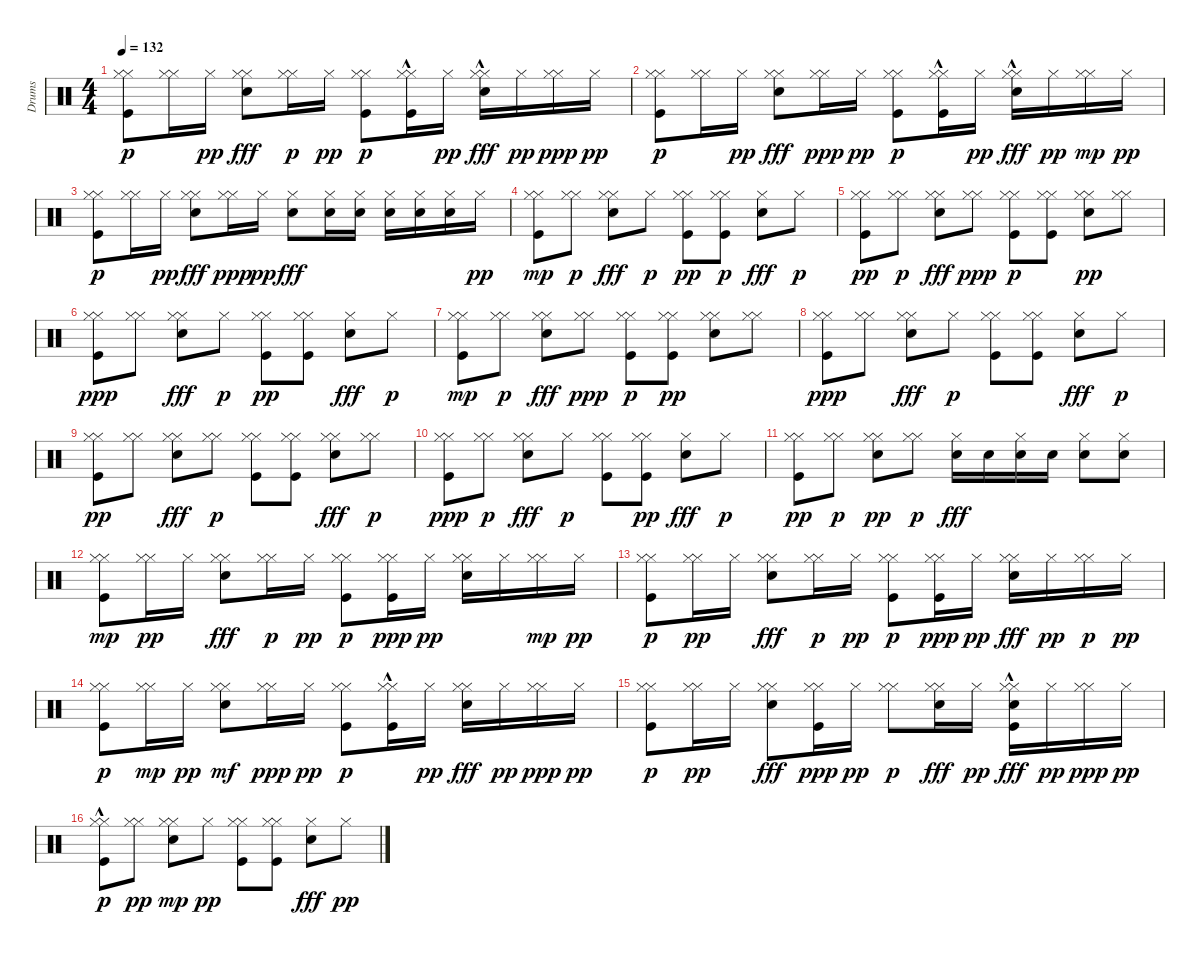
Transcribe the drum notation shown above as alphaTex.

\track ("Drums" "Drums") {instrument percussion}
\staff {score}
\articulation defaults
\ts (4 4)
\tempo 132
\clef neutral
\ks c
("Kick (hit)" "Hi-Hat (closed)" "Hi-Hat (closed)").8{dy p} ("Hi-Hat (closed)" "Hi-Hat (closed)").16 "Hi-Hat (closed)".16{dy pp} ("Hi-Hat (closed)" "Hi-Hat (closed)" "Snare (hit) 2").8{dy fff} ("Hi-Hat (closed)" "Hi-Hat (closed)").16{dy p} "Hi-Hat (closed)".16{dy pp} ("Hi-Hat (closed)" "Kick (hit)" "Hi-Hat (closed)").8{dy p} ("Kick (hit)"{hac} "Hi-Hat (closed)" "Hi-Hat (closed)").16 "Hi-Hat (closed)".16{dy pp} ("Hi-Hat (closed)" "Hi-Hat (closed)" "Snare (hit) 2"{hac}).16{dy fff} "Hi-Hat (closed)".16{dy pp} ("Hi-Hat (closed)" "Hi-Hat (closed)").16{dy ppp} "Hi-Hat (closed)".16{dy pp} |
("Kick (hit)" "Hi-Hat (closed)" "Hi-Hat (closed)").8{dy p} ("Hi-Hat (closed)" "Hi-Hat (closed)").16 "Hi-Hat (closed)".16{dy pp} ("Hi-Hat (closed)" "Hi-Hat (closed)" "Snare (hit) 2").8{dy fff} ("Hi-Hat (closed)" "Hi-Hat (closed)").16{dy ppp} "Hi-Hat (closed)".16{dy pp} ("Kick (hit)" "Hi-Hat (closed)" "Hi-Hat (closed)").8{dy p} ("Kick (hit)"{hac} "Hi-Hat (closed)" "Hi-Hat (closed)").16 "Hi-Hat (closed)".16{dy pp} ("Hi-Hat (closed)" "Hi-Hat (closed)" "Snare (hit) 2"{hac}).16{dy fff} "Hi-Hat (closed)".16{dy pp} ("Hi-Hat (closed)" "Hi-Hat (closed)").16{dy mp} "Hi-Hat (closed)".16{dy pp} |
("Kick (hit)" "Hi-Hat (closed)" "Hi-Hat (closed)").8{dy p} ("Hi-Hat (closed)" "Hi-Hat (closed)").16 "Hi-Hat (closed)".16{dy pp} ("Hi-Hat (closed)" "Hi-Hat (closed)" "Snare (hit) 2").8{dy fff} ("Hi-Hat (closed)" "Hi-Hat (closed)").16{dy ppp} "Hi-Hat (closed)".16{dy pp} ("Hi-Hat (closed)" "Snare (hit) 2").8{dy fff} ("Hi-Hat (closed)" "Snare (hit) 2").16 ("Hi-Hat (closed)" "Snare (hit) 2").16 ("Hi-Hat (closed)" "Snare (hit) 2").16 ("Hi-Hat (closed)" "Snare (hit) 2").16 ("Hi-Hat (closed)" "Snare (hit) 2").16 "Hi-Hat (closed)".16{dy pp} |
("Hi-Hat (closed)" "Kick (hit)" "Hi-Hat (closed)").8{dy mp} ("Hi-Hat (closed)" "Hi-Hat (closed)").8{dy p} ("Hi-Hat (closed)" "Hi-Hat (closed)" "Snare (hit) 2").8{dy fff} "Hi-Hat (closed)".8{dy p} ("Kick (hit)" "Hi-Hat (closed)" "Hi-Hat (closed)").8{dy pp} ("Kick (hit)" "Hi-Hat (closed)" "Hi-Hat (closed)").8{dy p} ("Hi-Hat (closed)" "Snare (hit) 2").8{dy fff} "Hi-Hat (closed)".8{dy p} |
("Kick (hit)" "Hi-Hat (closed)" "Hi-Hat (closed)").8{dy pp} ("Hi-Hat (closed)" "Hi-Hat (closed)").8{dy p} ("Hi-Hat (closed)" "Hi-Hat (closed)" "Snare (hit) 2").8{dy fff} ("Hi-Hat (closed)" "Hi-Hat (closed)").8{dy ppp} ("Kick (hit)" "Hi-Hat (closed)" "Hi-Hat (closed)").8{dy p} ("Kick (hit)" "Hi-Hat (closed)" "Hi-Hat (closed)").8 ("Snare (hit) 2" "Hi-Hat (closed)" "Hi-Hat (closed)").8{dy pp} ("Hi-Hat (closed)" "Hi-Hat (closed)").8 |
("Hi-Hat (closed)" "Kick (hit)" "Hi-Hat (closed)").8{dy ppp} ("Hi-Hat (closed)" "Hi-Hat (closed)").8 ("Hi-Hat (closed)" "Hi-Hat (closed)" "Snare (hit) 2").8{dy fff} "Hi-Hat (closed)".8{dy p} ("Kick (hit)" "Hi-Hat (closed)" "Hi-Hat (closed)").8{dy pp} ("Kick (hit)" "Hi-Hat (closed)" "Hi-Hat (closed)").8 ("Hi-Hat (closed)" "Snare (hit) 2").8{dy fff} "Hi-Hat (closed)".8{dy p} |
("Kick (hit)" "Hi-Hat (closed)" "Hi-Hat (closed)").8{dy mp} ("Hi-Hat (closed)" "Hi-Hat (closed)").8{dy p} ("Hi-Hat (closed)" "Hi-Hat (closed)" "Snare (hit) 2").8{dy fff} ("Hi-Hat (closed)" "Hi-Hat (closed)").8{dy ppp} ("Kick (hit)" "Hi-Hat (closed)" "Hi-Hat (closed)").8{dy p} ("Kick (hit)" "Hi-Hat (closed)" "Hi-Hat (closed)").8{dy pp} ("Snare (hit) 2" "Hi-Hat (closed)" "Hi-Hat (closed)").8 ("Hi-Hat (closed)" "Hi-Hat (closed)").8 |
("Kick (hit)" "Hi-Hat (closed)" "Hi-Hat (closed)").8{dy ppp} ("Hi-Hat (closed)" "Hi-Hat (closed)").8 ("Hi-Hat (closed)" "Hi-Hat (closed)" "Snare (hit) 2").8{dy fff} "Hi-Hat (closed)".8{dy p} ("Hi-Hat (closed)" "Kick (hit)" "Hi-Hat (closed)").8 ("Kick (hit)" "Hi-Hat (closed)" "Hi-Hat (closed)").8 ("Hi-Hat (closed)" "Snare (hit) 2").8{dy fff} "Hi-Hat (closed)".8{dy p} |
("Hi-Hat (closed)" "Kick (hit)" "Hi-Hat (closed)").8{dy pp} ("Hi-Hat (closed)" "Hi-Hat (closed)").8 ("Hi-Hat (closed)" "Hi-Hat (closed)" "Snare (hit) 2").8{dy fff} ("Hi-Hat (closed)" "Hi-Hat (closed)").8{dy p} ("Kick (hit)" "Hi-Hat (closed)" "Hi-Hat (closed)").8 ("Hi-Hat (closed)" "Kick (hit)" "Hi-Hat (closed)").8 ("Hi-Hat (closed)" "Hi-Hat (closed)" "Snare (hit) 2").8{dy fff} ("Hi-Hat (closed)" "Hi-Hat (closed)").8{dy p} |
("Kick (hit)" "Hi-Hat (closed)" "Hi-Hat (closed)").8{dy ppp} ("Hi-Hat (closed)" "Hi-Hat (closed)").8{dy p} ("Hi-Hat (closed)" "Hi-Hat (closed)" "Snare (hit) 2").8{dy fff} "Hi-Hat (closed)".8{dy p} ("Kick (hit)" "Hi-Hat (closed)" "Hi-Hat (closed)").8 ("Kick (hit)" "Hi-Hat (closed)" "Hi-Hat (closed)").8{dy pp} ("Hi-Hat (closed)" "Snare (hit) 2").8{dy fff} "Hi-Hat (closed)".8{dy p} |
("Kick (hit)" "Hi-Hat (closed)" "Hi-Hat (closed)").8{dy pp} ("Hi-Hat (closed)" "Hi-Hat (closed)").8{dy p} ("Hi-Hat (closed)" "Snare (hit) 2" "Hi-Hat (closed)").8{dy pp} ("Hi-Hat (closed)" "Hi-Hat (closed)").8{dy p} ("Hi-Hat (closed)" "Snare (hit) 2").16{dy fff} "Snare (hit) 2".16 ("Hi-Hat (closed)" "Snare (hit) 2").16 "Snare (hit) 2".16 ("Hi-Hat (closed)" "Snare (hit) 2").8 ("Hi-Hat (closed)" "Snare (hit) 2").8 |
("Kick (hit)" "Hi-Hat (closed)" "Hi-Hat (closed)").8{dy mp} ("Hi-Hat (closed)" "Hi-Hat (closed)").16{dy pp} "Hi-Hat (closed)".16 ("Hi-Hat (closed)" "Hi-Hat (closed)" "Snare (hit) 2").8{dy fff} ("Hi-Hat (closed)" "Hi-Hat (closed)").16{dy p} "Hi-Hat (closed)".16{dy pp} ("Kick (hit)" "Hi-Hat (closed)" "Hi-Hat (closed)").8{dy p} ("Kick (hit)" "Hi-Hat (closed)" "Hi-Hat (closed)").16{dy ppp} "Hi-Hat (closed)".16{dy pp} ("Snare (hit) 2" "Hi-Hat (closed)" "Hi-Hat (closed)").16 "Hi-Hat (closed)".16 ("Hi-Hat (closed)" "Hi-Hat (closed)").16{dy mp} "Hi-Hat (closed)".16{dy pp} |
("Kick (hit)" "Hi-Hat (closed)" "Hi-Hat (closed)").8{dy p} ("Hi-Hat (closed)" "Hi-Hat (closed)").16{dy pp} "Hi-Hat (closed)".16 ("Hi-Hat (closed)" "Hi-Hat (closed)" "Snare (hit) 2").8{dy fff} ("Hi-Hat (closed)" "Hi-Hat (closed)").16{dy p} "Hi-Hat (closed)".16{dy pp} ("Kick (hit)" "Hi-Hat (closed)" "Hi-Hat (closed)").8{dy p} ("Kick (hit)" "Hi-Hat (closed)" "Hi-Hat (closed)").16{dy ppp} "Hi-Hat (closed)".16{dy pp} ("Hi-Hat (closed)" "Hi-Hat (closed)" "Snare (hit) 2").16{dy fff} "Hi-Hat (closed)".16{dy pp} ("Hi-Hat (closed)" "Hi-Hat (closed)").16{dy p} "Hi-Hat (closed)".16{dy pp} |
("Kick (hit)" "Hi-Hat (closed)" "Hi-Hat (closed)").8{dy p} ("Hi-Hat (closed)" "Hi-Hat (closed)").16{dy mp} "Hi-Hat (closed)".16{dy pp} ("Snare (hit) 2" "Hi-Hat (closed)" "Hi-Hat (closed)").8{dy mf} ("Hi-Hat (closed)" "Hi-Hat (closed)").16{dy ppp} "Hi-Hat (closed)".16{dy pp} ("Kick (hit)" "Hi-Hat (closed)" "Hi-Hat (closed)").8{dy p} ("Kick (hit)"{hac} "Hi-Hat (closed)" "Hi-Hat (closed)").16 "Hi-Hat (closed)".16{dy pp} ("Hi-Hat (closed)" "Hi-Hat (closed)" "Snare (hit) 2").16{dy fff} "Hi-Hat (closed)".16{dy pp} ("Hi-Hat (closed)" "Hi-Hat (closed)").16{dy ppp} "Hi-Hat (closed)".16{dy pp} |
("Kick (hit)" "Hi-Hat (closed)" "Hi-Hat (closed)").8{dy p} ("Hi-Hat (closed)" "Hi-Hat (closed)").16{dy pp} "Hi-Hat (closed)".16 ("Hi-Hat (closed)" "Hi-Hat (closed)" "Snare (hit) 2").8{dy fff} ("Kick (hit)" "Hi-Hat (closed)" "Hi-Hat (closed)").16{dy ppp} "Hi-Hat (closed)".16{dy pp} ("Hi-Hat (closed)" "Hi-Hat (closed)").8{dy p} ("Hi-Hat (closed)" "Hi-Hat (closed)" "Snare (hit) 2").16{dy fff} "Hi-Hat (closed)".16{dy pp} ("Kick (hit)" "Hi-Hat (closed)" "Hi-Hat (closed)" "Snare (hit) 2"{hac}).16{dy fff} "Hi-Hat (closed)".16{dy pp} ("Hi-Hat (closed)" "Hi-Hat (closed)").16{dy ppp} "Hi-Hat (closed)".16{dy pp} |
("Kick (hit)"{hac} "Hi-Hat (closed)" "Hi-Hat (closed)").8{dy p} ("Hi-Hat (closed)" "Hi-Hat (closed)").8{dy pp} ("Hi-Hat (closed)" "Snare (hit) 2" "Hi-Hat (closed)").8{dy mp} "Hi-Hat (closed)".8{dy pp} ("Kick (hit)" "Hi-Hat (closed)" "Hi-Hat (closed)").8 ("Kick (hit)" "Hi-Hat (closed)" "Hi-Hat (closed)").8 ("Hi-Hat (closed)" "Snare (hit) 2").8{dy fff} "Hi-Hat (closed)".8{dy pp}
